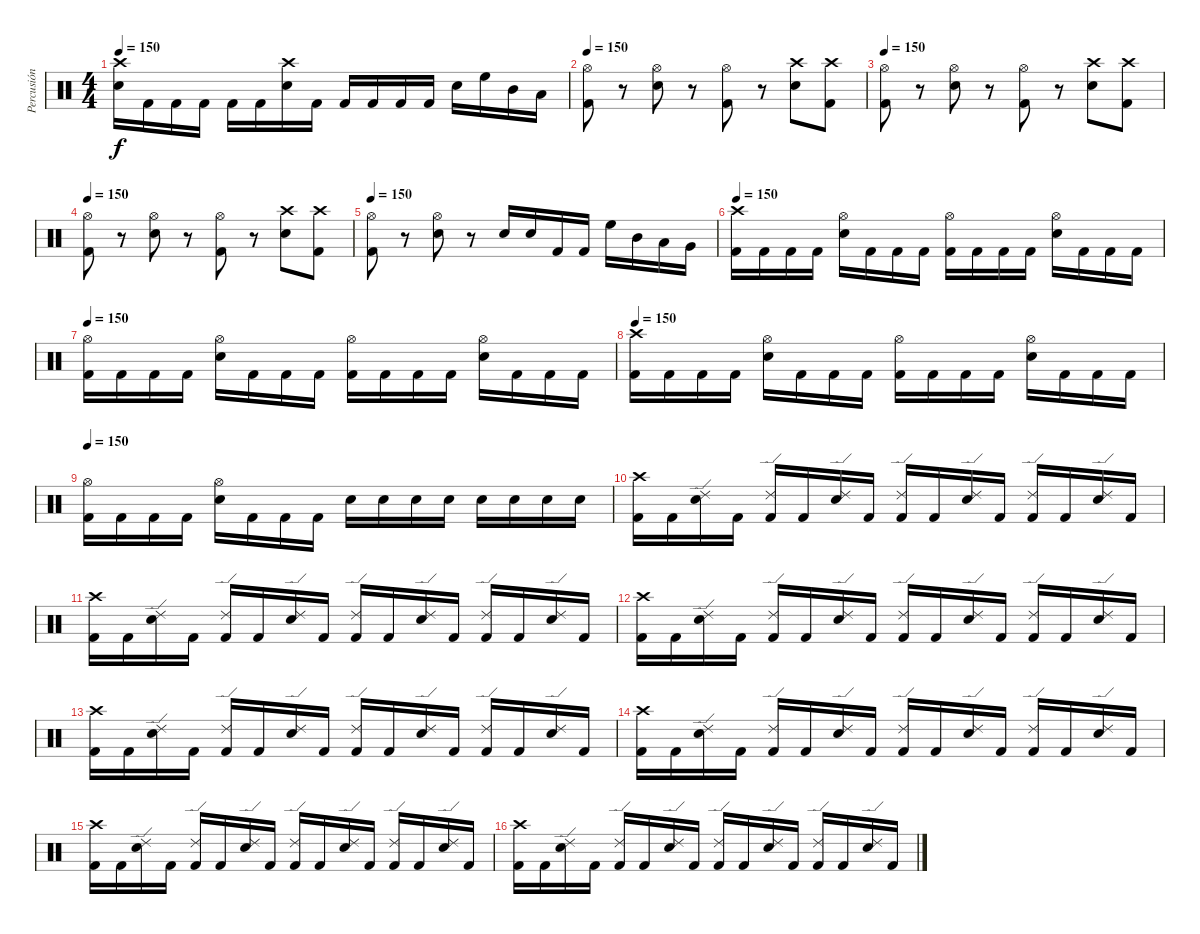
\track ("Percusión" "Percusión") {instrument percussion}
\staff {score}
\articulation defaults
\ts (4 4)
\tempo 150
\clef neutral
\ks c
("Crash high (hit)" "Electric Snare (hit)").16{dy f} "Kick (hit) 2".16 "Kick (hit) 2".16 "Kick (hit) 2".16 "Kick (hit) 2".16 "Kick (hit) 2".16 ("Crash high (hit)" "Electric Snare (hit)").16 "Kick (hit) 2".16 "Kick (hit) 2".16 "Kick (hit) 2".16 "Kick (hit) 2".16 "Kick (hit) 2".16 "Electric Snare (hit)".16 "High Floor Tom (hit)".16 "Mid Tom (hit)".16 "Low Tom (hit)".16 |
\tempo 150
("Hi-Hat (open)" "Kick (hit) 2").8 r.8 ("Hi-Hat (open)" "Electric Snare (hit)").8 r.8 ("Hi-Hat (open)" "Kick (hit) 2").8 r.8 ("Crash high (hit)" "Electric Snare (hit)").8 ("Crash high (hit)" "Kick (hit) 2").8 |
\tempo 150
("Hi-Hat (open)" "Kick (hit) 2").8 r.8 ("Hi-Hat (open)" "Electric Snare (hit)").8 r.8 ("Hi-Hat (open)" "Kick (hit) 2").8 r.8 ("Crash high (hit)" "Electric Snare (hit)").8 ("Crash high (hit)" "Kick (hit) 2").8 |
\tempo 150
("Hi-Hat (open)" "Kick (hit) 2").8 r.8 ("Hi-Hat (open)" "Electric Snare (hit)").8 r.8 ("Hi-Hat (open)" "Kick (hit) 2").8 r.8 ("Crash high (hit)" "Electric Snare (hit)").8 ("Crash high (hit)" "Kick (hit) 2").8 |
\tempo 150
("Hi-Hat (open)" "Kick (hit) 2").8 r.8 ("Hi-Hat (open)" "Electric Snare (hit)").8 r.8 "Electric Snare (hit)".16 "Electric Snare (hit)".16 "Kick (hit) 2".16 "Kick (hit) 2".16 "High Floor Tom (hit)".16 "Mid Tom (hit)".16 "Low Tom (hit)".16 "Very Low Tom (hit)".16 |
\tempo 150
("Crash high (hit)" "Kick (hit) 2").16 "Kick (hit) 2".16 "Kick (hit) 2".16 "Kick (hit) 2".16 ("Hi-Hat (open)" "Electric Snare (hit)").16 "Kick (hit) 2".16 "Kick (hit) 2".16 "Kick (hit) 2".16 ("Hi-Hat (open)" "Kick (hit) 2").16 "Kick (hit) 2".16 "Kick (hit) 2".16 "Kick (hit) 2".16 ("Hi-Hat (open)" "Electric Snare (hit)").16 "Kick (hit) 2".16 "Kick (hit) 2".16 "Kick (hit) 2".16 |
\tempo 150
("Hi-Hat (open)" "Kick (hit) 2").16 "Kick (hit) 2".16 "Kick (hit) 2".16 "Kick (hit) 2".16 ("Hi-Hat (open)" "Electric Snare (hit)").16 "Kick (hit) 2".16 "Kick (hit) 2".16 "Kick (hit) 2".16 ("Hi-Hat (open)" "Kick (hit) 2").16 "Kick (hit) 2".16 "Kick (hit) 2".16 "Kick (hit) 2".16 ("Hi-Hat (open)" "Electric Snare (hit)").16 "Kick (hit) 2".16 "Kick (hit) 2".16 "Kick (hit) 2".16 |
\tempo 150
("Crash high (hit)" "Kick (hit) 2").16 "Kick (hit) 2".16 "Kick (hit) 2".16 "Kick (hit) 2".16 ("Hi-Hat (open)" "Electric Snare (hit)").16 "Kick (hit) 2".16 "Kick (hit) 2".16 "Kick (hit) 2".16 ("Hi-Hat (open)" "Kick (hit) 2").16 "Kick (hit) 2".16 "Kick (hit) 2".16 "Kick (hit) 2".16 ("Hi-Hat (open)" "Electric Snare (hit)").16 "Kick (hit) 2".16 "Kick (hit) 2".16 "Kick (hit) 2".16 |
\tempo 150
("Hi-Hat (open)" "Kick (hit) 2").16 "Kick (hit) 2".16 "Kick (hit) 2".16 "Kick (hit) 2".16 ("Hi-Hat (open)" "Electric Snare (hit)").16 "Kick (hit) 2".16 "Kick (hit) 2".16 "Kick (hit) 2".16 "Electric Snare (hit)".16 "Electric Snare (hit)".16 "Electric Snare (hit)".16 "Electric Snare (hit)".16 "Electric Snare (hit)".16 "Electric Snare (hit)".16 "Electric Snare (hit)".16 "Electric Snare (hit)".16 |
("Crash high (hit)" "Kick (hit) 2").16 "Kick (hit) 2".16 ("Ride (edge) 2" "Electric Snare (hit)").16 "Kick (hit) 2".16 ("Ride (edge) 2" "Kick (hit) 2").16 "Kick (hit) 2".16 ("Ride (edge) 2" "Electric Snare (hit)").16 "Kick (hit) 2".16 ("Ride (edge) 2" "Kick (hit) 2").16 "Kick (hit) 2".16 ("Ride (edge) 2" "Electric Snare (hit)").16 "Kick (hit) 2".16 ("Ride (edge) 2" "Kick (hit) 2").16 "Kick (hit) 2".16 ("Ride (edge) 2" "Electric Snare (hit)").16 "Kick (hit) 2".16 |
("Crash high (hit)" "Kick (hit) 2").16 "Kick (hit) 2".16 ("Ride (edge) 2" "Electric Snare (hit)").16 "Kick (hit) 2".16 ("Ride (edge) 2" "Kick (hit) 2").16 "Kick (hit) 2".16 ("Ride (edge) 2" "Electric Snare (hit)").16 "Kick (hit) 2".16 ("Ride (edge) 2" "Kick (hit) 2").16 "Kick (hit) 2".16 ("Ride (edge) 2" "Electric Snare (hit)").16 "Kick (hit) 2".16 ("Ride (edge) 2" "Kick (hit) 2").16 "Kick (hit) 2".16 ("Ride (edge) 2" "Electric Snare (hit)").16 "Kick (hit) 2".16 |
("Crash high (hit)" "Kick (hit) 2").16 "Kick (hit) 2".16 ("Ride (edge) 2" "Electric Snare (hit)").16 "Kick (hit) 2".16 ("Ride (edge) 2" "Kick (hit) 2").16 "Kick (hit) 2".16 ("Ride (edge) 2" "Electric Snare (hit)").16 "Kick (hit) 2".16 ("Ride (edge) 2" "Kick (hit) 2").16 "Kick (hit) 2".16 ("Ride (edge) 2" "Electric Snare (hit)").16 "Kick (hit) 2".16 ("Ride (edge) 2" "Kick (hit) 2").16 "Kick (hit) 2".16 ("Ride (edge) 2" "Electric Snare (hit)").16 "Kick (hit) 2".16 |
("Crash high (hit)" "Kick (hit) 2").16 "Kick (hit) 2".16 ("Ride (edge) 2" "Electric Snare (hit)").16 "Kick (hit) 2".16 ("Ride (edge) 2" "Kick (hit) 2").16 "Kick (hit) 2".16 ("Ride (edge) 2" "Electric Snare (hit)").16 "Kick (hit) 2".16 ("Ride (edge) 2" "Kick (hit) 2").16 "Kick (hit) 2".16 ("Ride (edge) 2" "Electric Snare (hit)").16 "Kick (hit) 2".16 ("Ride (edge) 2" "Kick (hit) 2").16 "Kick (hit) 2".16 ("Ride (edge) 2" "Electric Snare (hit)").16 "Kick (hit) 2".16 |
("Crash high (hit)" "Kick (hit) 2").16 "Kick (hit) 2".16 ("Ride (edge) 2" "Electric Snare (hit)").16 "Kick (hit) 2".16 ("Ride (edge) 2" "Kick (hit) 2").16 "Kick (hit) 2".16 ("Ride (edge) 2" "Electric Snare (hit)").16 "Kick (hit) 2".16 ("Ride (edge) 2" "Kick (hit) 2").16 "Kick (hit) 2".16 ("Ride (edge) 2" "Electric Snare (hit)").16 "Kick (hit) 2".16 ("Ride (edge) 2" "Kick (hit) 2").16 "Kick (hit) 2".16 ("Ride (edge) 2" "Electric Snare (hit)").16 "Kick (hit) 2".16 |
("Crash high (hit)" "Kick (hit) 2").16 "Kick (hit) 2".16 ("Ride (edge) 2" "Electric Snare (hit)").16 "Kick (hit) 2".16 ("Ride (edge) 2" "Kick (hit) 2").16 "Kick (hit) 2".16 ("Ride (edge) 2" "Electric Snare (hit)").16 "Kick (hit) 2".16 ("Ride (edge) 2" "Kick (hit) 2").16 "Kick (hit) 2".16 ("Ride (edge) 2" "Electric Snare (hit)").16 "Kick (hit) 2".16 ("Ride (edge) 2" "Kick (hit) 2").16 "Kick (hit) 2".16 ("Ride (edge) 2" "Electric Snare (hit)").16 "Kick (hit) 2".16 |
("Crash high (hit)" "Kick (hit) 2").16 "Kick (hit) 2".16 ("Ride (edge) 2" "Electric Snare (hit)").16 "Kick (hit) 2".16 ("Ride (edge) 2" "Kick (hit) 2").16 "Kick (hit) 2".16 ("Ride (edge) 2" "Electric Snare (hit)").16 "Kick (hit) 2".16 ("Ride (edge) 2" "Kick (hit) 2").16 "Kick (hit) 2".16 ("Ride (edge) 2" "Electric Snare (hit)").16 "Kick (hit) 2".16 ("Ride (edge) 2" "Kick (hit) 2").16 "Kick (hit) 2".16 ("Ride (edge) 2" "Electric Snare (hit)").16 "Kick (hit) 2".16
